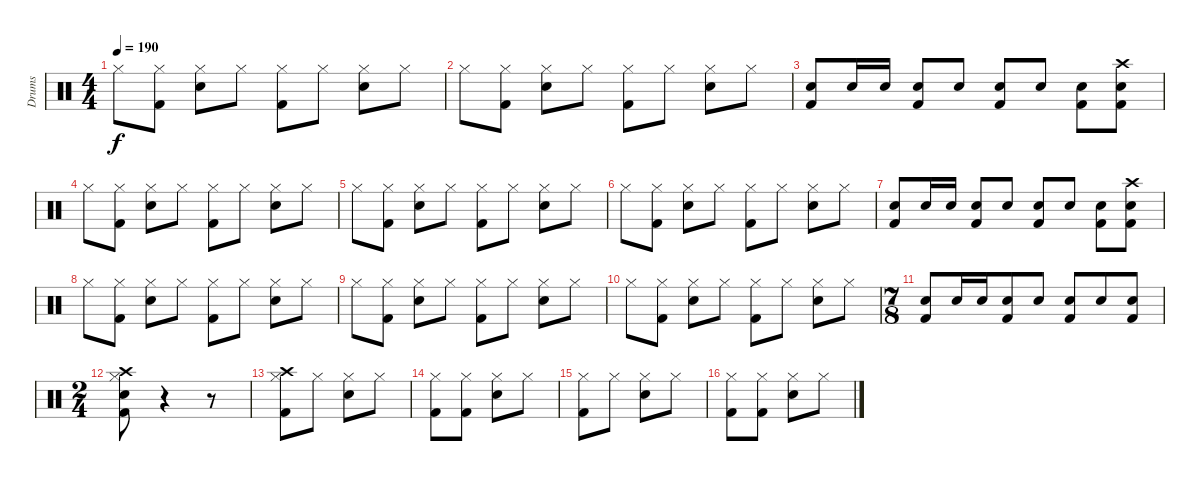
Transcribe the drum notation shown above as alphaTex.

\track ("Drums" "Drums") {instrument percussion}
\staff {score}
\articulation defaults
\ts (4 4)
\tempo 190
\clef neutral
\ks c "Hi-Hat (closed)".8{dy f}
("Kick (hit) 2" "Hi-Hat (closed)").8 ("Snare (hit) 2" "Hi-Hat (closed)").8 "Hi-Hat (closed)".8 ("Kick (hit) 2" "Hi-Hat (closed)").8 "Hi-Hat (closed)".8 ("Snare (hit) 2" "Hi-Hat (closed)").8 "Hi-Hat (closed)".8 |
"Hi-Hat (closed)".8 ("Kick (hit) 2" "Hi-Hat (closed)").8 ("Snare (hit) 2" "Hi-Hat (closed)").8 "Hi-Hat (closed)".8 ("Kick (hit) 2" "Hi-Hat (closed)").8 "Hi-Hat (closed)".8 ("Snare (hit) 2" "Hi-Hat (closed)").8 "Hi-Hat (closed)".8 |
("Kick (hit) 2" "Snare (hit) 2").8 "Snare (hit) 2".16 "Snare (hit) 2".16 ("Kick (hit) 2" "Snare (hit) 2").8 "Snare (hit) 2".8 ("Kick (hit) 2" "Snare (hit) 2").8 "Snare (hit) 2".8 ("Kick (hit) 2" "Snare (hit) 2").8 ("Kick (hit) 2" "Snare (hit) 2" "Crash high (hit)").8 |
"Hi-Hat (closed)".8 ("Kick (hit) 2" "Hi-Hat (closed)").8 ("Snare (hit) 2" "Hi-Hat (closed)").8 "Hi-Hat (closed)".8 ("Kick (hit) 2" "Hi-Hat (closed)").8 "Hi-Hat (closed)".8 ("Snare (hit) 2" "Hi-Hat (closed)").8 "Hi-Hat (closed)".8 |
"Hi-Hat (closed)".8 ("Kick (hit) 2" "Hi-Hat (closed)").8 ("Snare (hit) 2" "Hi-Hat (closed)").8 "Hi-Hat (closed)".8 ("Kick (hit) 2" "Hi-Hat (closed)").8 "Hi-Hat (closed)".8 ("Snare (hit) 2" "Hi-Hat (closed)").8 "Hi-Hat (closed)".8 |
"Hi-Hat (closed)".8 ("Kick (hit) 2" "Hi-Hat (closed)").8 ("Snare (hit) 2" "Hi-Hat (closed)").8 "Hi-Hat (closed)".8 ("Kick (hit) 2" "Hi-Hat (closed)").8 "Hi-Hat (closed)".8 ("Snare (hit) 2" "Hi-Hat (closed)").8 "Hi-Hat (closed)".8 |
("Kick (hit) 2" "Snare (hit) 2").8 "Snare (hit) 2".16 "Snare (hit) 2".16 ("Kick (hit) 2" "Snare (hit) 2").8 "Snare (hit) 2".8 ("Kick (hit) 2" "Snare (hit) 2").8 "Snare (hit) 2".8 ("Kick (hit) 2" "Snare (hit) 2").8 ("Kick (hit) 2" "Snare (hit) 2" "Crash high (hit)").8 |
"Hi-Hat (closed)".8 ("Kick (hit) 2" "Hi-Hat (closed)").8 ("Snare (hit) 2" "Hi-Hat (closed)").8 "Hi-Hat (closed)".8 ("Kick (hit) 2" "Hi-Hat (closed)").8 "Hi-Hat (closed)".8 ("Snare (hit) 2" "Hi-Hat (closed)").8 "Hi-Hat (closed)".8 |
"Hi-Hat (closed)".8 ("Kick (hit) 2" "Hi-Hat (closed)").8 ("Snare (hit) 2" "Hi-Hat (closed)").8 "Hi-Hat (closed)".8 ("Kick (hit) 2" "Hi-Hat (closed)").8 "Hi-Hat (closed)".8 ("Snare (hit) 2" "Hi-Hat (closed)").8 "Hi-Hat (closed)".8 |
"Hi-Hat (closed)".8 ("Kick (hit) 2" "Hi-Hat (closed)").8 ("Snare (hit) 2" "Hi-Hat (closed)").8 "Hi-Hat (closed)".8 ("Kick (hit) 2" "Hi-Hat (closed)").8 "Hi-Hat (closed)".8 ("Snare (hit) 2" "Hi-Hat (closed)").8 "Hi-Hat (closed)".8 |
\ts (7 8)
("Kick (hit) 2" "Snare (hit) 2").8 "Snare (hit) 2".16 "Snare (hit) 2".16 ("Kick (hit) 2" "Snare (hit) 2").8 "Snare (hit) 2".8 ("Kick (hit) 2" "Snare (hit) 2").8 "Snare (hit) 2".8 ("Kick (hit) 2" "Snare (hit) 2").8 |
\ts (2 4)
("Kick (hit) 2" "Snare (hit) 2" "Hi-Hat (closed)" "Crash high (hit)").8 r.4 r.8 |
("Kick (hit) 2" "Hi-Hat (closed)" "Crash high (hit)").8 "Hi-Hat (closed)".8 ("Snare (hit) 2" "Hi-Hat (closed)").8 "Hi-Hat (closed)".8 |
("Kick (hit) 2" "Hi-Hat (closed)").8 ("Kick (hit) 2" "Hi-Hat (closed)").8 ("Snare (hit) 2" "Hi-Hat (closed)").8 "Hi-Hat (closed)".8 |
("Kick (hit) 2" "Hi-Hat (closed)").8 "Hi-Hat (closed)".8 ("Snare (hit) 2" "Hi-Hat (closed)").8 "Hi-Hat (closed)".8 |
("Kick (hit) 2" "Hi-Hat (closed)").8 ("Kick (hit) 2" "Hi-Hat (closed)").8 ("Snare (hit) 2" "Hi-Hat (closed)").8 "Hi-Hat (closed)".8
